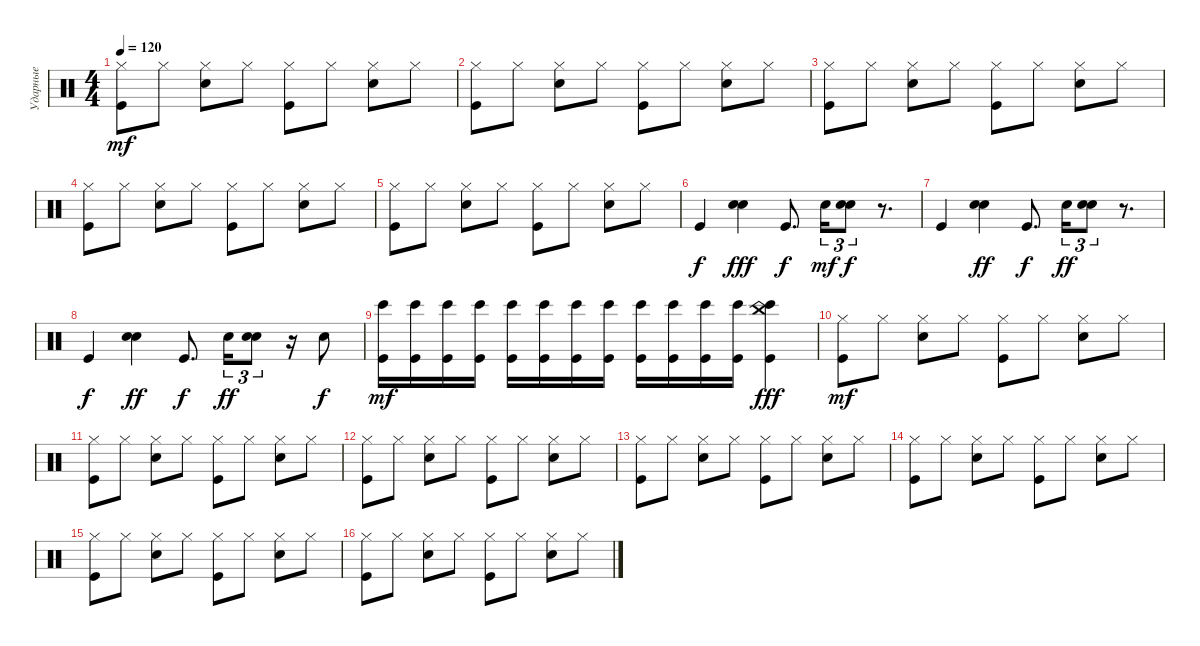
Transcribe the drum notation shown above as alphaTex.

\track ("Ударные" "Ударные") {instrument percussion}
\staff {score}
\articulation defaults
\ts (4 4)
\tempo 120
\clef neutral
\ks c
("Kick (hit)" "Hi-Hat (closed)").8{dy mf} "Hi-Hat (closed)".8 ("Snare (hit) 2" "Hi-Hat (closed)").8 "Hi-Hat (closed)".8 ("Kick (hit)" "Hi-Hat (closed)").8 "Hi-Hat (closed)".8 ("Snare (hit) 2" "Hi-Hat (closed)").8 "Hi-Hat (closed)".8 |
("Kick (hit)" "Hi-Hat (closed)").8 "Hi-Hat (closed)".8 ("Snare (hit) 2" "Hi-Hat (closed)").8 "Hi-Hat (closed)".8 ("Kick (hit)" "Hi-Hat (closed)").8 "Hi-Hat (closed)".8 ("Snare (hit) 2" "Hi-Hat (closed)").8 "Hi-Hat (closed)".8 |
("Kick (hit)" "Hi-Hat (closed)").8 "Hi-Hat (closed)".8 ("Snare (hit) 2" "Hi-Hat (closed)").8 "Hi-Hat (closed)".8 ("Kick (hit)" "Hi-Hat (closed)").8 "Hi-Hat (closed)".8 ("Snare (hit) 2" "Hi-Hat (closed)").8 "Hi-Hat (closed)".8 |
("Kick (hit)" "Hi-Hat (closed)").8 "Hi-Hat (closed)".8 ("Snare (hit) 2" "Hi-Hat (closed)").8 "Hi-Hat (closed)".8 ("Kick (hit)" "Hi-Hat (closed)").8 "Hi-Hat (closed)".8 ("Snare (hit) 2" "Hi-Hat (closed)").8 "Hi-Hat (closed)".8 |
("Kick (hit)" "Hi-Hat (closed)").8 "Hi-Hat (closed)".8 ("Snare (hit) 2" "Hi-Hat (closed)").8 "Hi-Hat (closed)".8 ("Kick (hit)" "Hi-Hat (closed)").8 "Hi-Hat (closed)".8 ("Snare (hit) 2" "Hi-Hat (closed)").8 "Hi-Hat (closed)".8 |
"Kick (hit)".4{dy f} ("Snare (hit) 2" "Hand Clap (hit)").4{dy fff} "Kick (hit)".8{d dy f} "Snare (hit) 2".16{tu (3 2) dy mf} ("Snare (hit) 2" "Hand Clap (hit)").8{tu (3 2) dy f} r.8{d} |
"Kick (hit)".4 ("Snare (hit) 2" "Hand Clap (hit)").4{dy ff} "Kick (hit)".8{d dy f} "Snare (hit) 2".16{tu (3 2) dy ff} ("Snare (hit) 2" "Hand Clap (hit)").8{tu (3 2)} r.8{d} |
"Kick (hit)".4{dy f} ("Snare (hit) 2" "Hand Clap (hit)").4{dy ff} "Kick (hit)".8{d dy f} "Snare (hit) 2".16{tu (3 2) dy ff} ("Snare (hit) 2" "Hand Clap (hit)").8{tu (3 2)} r.16 "Snare (hit) 2".8{dy f} |
("Kick (hit)" "Bongo High (hit)").16{dy mf} ("Kick (hit)" "Bongo High (hit)").16 ("Kick (hit)" "Bongo High (hit)").16 ("Kick (hit)" "Bongo High (hit)").16 ("Kick (hit)" "Bongo High (hit)").16 ("Kick (hit)" "Bongo High (hit)").16 ("Kick (hit)" "Bongo High (hit)").16 ("Kick (hit)" "Bongo High (hit)").16 ("Kick (hit)" "Bongo High (hit)").16 ("Kick (hit)" "Bongo High (hit)").16 ("Kick (hit)" "Bongo High (hit)").16 ("Kick (hit)" "Bongo High (hit)").16 ("Kick (hit)" "Bongo High (hit)" "China (hit)").4{dy fff} |
("Kick (hit)" "Hi-Hat (closed)").8{dy mf} "Hi-Hat (closed)".8 ("Snare (hit) 2" "Hi-Hat (closed)").8 "Hi-Hat (closed)".8 ("Kick (hit)" "Hi-Hat (closed)").8 "Hi-Hat (closed)".8 ("Snare (hit) 2" "Hi-Hat (closed)").8 "Hi-Hat (closed)".8 |
("Kick (hit)" "Hi-Hat (closed)").8 "Hi-Hat (closed)".8 ("Snare (hit) 2" "Hi-Hat (closed)").8 "Hi-Hat (closed)".8 ("Kick (hit)" "Hi-Hat (closed)").8 "Hi-Hat (closed)".8 ("Snare (hit) 2" "Hi-Hat (closed)").8 "Hi-Hat (closed)".8 |
("Kick (hit)" "Hi-Hat (closed)").8 "Hi-Hat (closed)".8 ("Snare (hit) 2" "Hi-Hat (closed)").8 "Hi-Hat (closed)".8 ("Kick (hit)" "Hi-Hat (closed)").8 "Hi-Hat (closed)".8 ("Snare (hit) 2" "Hi-Hat (closed)").8 "Hi-Hat (closed)".8 |
("Kick (hit)" "Hi-Hat (closed)").8 "Hi-Hat (closed)".8 ("Snare (hit) 2" "Hi-Hat (closed)").8 "Hi-Hat (closed)".8 ("Kick (hit)" "Hi-Hat (closed)").8 "Hi-Hat (closed)".8 ("Snare (hit) 2" "Hi-Hat (closed)").8 "Hi-Hat (closed)".8 |
("Kick (hit)" "Hi-Hat (closed)").8 "Hi-Hat (closed)".8 ("Snare (hit) 2" "Hi-Hat (closed)").8 "Hi-Hat (closed)".8 ("Kick (hit)" "Hi-Hat (closed)").8 "Hi-Hat (closed)".8 ("Snare (hit) 2" "Hi-Hat (closed)").8 "Hi-Hat (closed)".8 |
("Kick (hit)" "Hi-Hat (closed)").8 "Hi-Hat (closed)".8 ("Snare (hit) 2" "Hi-Hat (closed)").8 "Hi-Hat (closed)".8 ("Kick (hit)" "Hi-Hat (closed)").8 "Hi-Hat (closed)".8 ("Snare (hit) 2" "Hi-Hat (closed)").8 "Hi-Hat (closed)".8 |
("Kick (hit)" "Hi-Hat (closed)").8 "Hi-Hat (closed)".8 ("Snare (hit) 2" "Hi-Hat (closed)").8 "Hi-Hat (closed)".8 ("Kick (hit)" "Hi-Hat (closed)").8 "Hi-Hat (closed)".8 ("Snare (hit) 2" "Hi-Hat (closed)").8 "Hi-Hat (closed)".8
